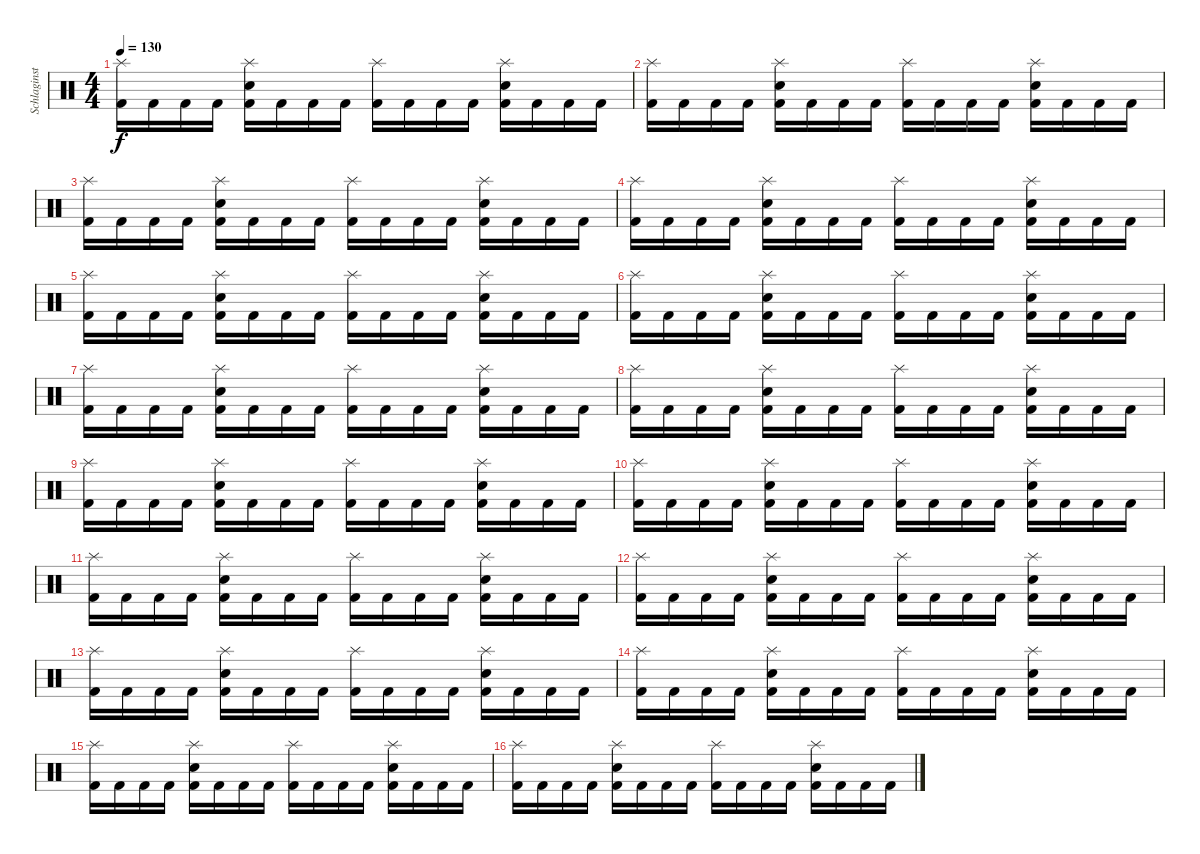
\track ("Schlaginstrumente - Auswahl" "Schlaginst") {instrument percussion}
\staff {score}
\articulation defaults
\ts (4 4)
\tempo 130
\clef neutral
\ks c
("Splash (hit)" "Kick (hit) 2").16{dy f} "Kick (hit) 2".16 "Kick (hit) 2".16 "Kick (hit) 2".16 ("Splash (hit)" "Snare (hit) 2" "Kick (hit) 2").16 "Kick (hit) 2".16 "Kick (hit) 2".16 "Kick (hit) 2".16 ("Splash (hit)" "Kick (hit) 2").16 "Kick (hit) 2".16 "Kick (hit) 2".16 "Kick (hit) 2".16 ("Splash (hit)" "Snare (hit) 2" "Kick (hit) 2").16 "Kick (hit) 2".16 "Kick (hit) 2".16 "Kick (hit) 2".16 |
("Splash (hit)" "Kick (hit) 2").16 "Kick (hit) 2".16 "Kick (hit) 2".16 "Kick (hit) 2".16 ("Splash (hit)" "Snare (hit) 2" "Kick (hit) 2").16 "Kick (hit) 2".16 "Kick (hit) 2".16 "Kick (hit) 2".16 ("Splash (hit)" "Kick (hit) 2").16 "Kick (hit) 2".16 "Kick (hit) 2".16 "Kick (hit) 2".16 ("Splash (hit)" "Snare (hit) 2" "Kick (hit) 2").16 "Kick (hit) 2".16 "Kick (hit) 2".16 "Kick (hit) 2".16 |
("Splash (hit)" "Kick (hit) 2").16 "Kick (hit) 2".16 "Kick (hit) 2".16 "Kick (hit) 2".16 ("Splash (hit)" "Snare (hit) 2" "Kick (hit) 2").16 "Kick (hit) 2".16 "Kick (hit) 2".16 "Kick (hit) 2".16 ("Splash (hit)" "Kick (hit) 2").16 "Kick (hit) 2".16 "Kick (hit) 2".16 "Kick (hit) 2".16 ("Splash (hit)" "Snare (hit) 2" "Kick (hit) 2").16 "Kick (hit) 2".16 "Kick (hit) 2".16 "Kick (hit) 2".16 |
("Splash (hit)" "Kick (hit) 2").16 "Kick (hit) 2".16 "Kick (hit) 2".16 "Kick (hit) 2".16 ("Splash (hit)" "Snare (hit) 2" "Kick (hit) 2").16 "Kick (hit) 2".16 "Kick (hit) 2".16 "Kick (hit) 2".16 ("Splash (hit)" "Kick (hit) 2").16 "Kick (hit) 2".16 "Kick (hit) 2".16 "Kick (hit) 2".16 ("Splash (hit)" "Snare (hit) 2" "Kick (hit) 2").16 "Kick (hit) 2".16 "Kick (hit) 2".16 "Kick (hit) 2".16 |
("Splash (hit)" "Kick (hit) 2").16 "Kick (hit) 2".16 "Kick (hit) 2".16 "Kick (hit) 2".16 ("Splash (hit)" "Snare (hit) 2" "Kick (hit) 2").16 "Kick (hit) 2".16 "Kick (hit) 2".16 "Kick (hit) 2".16 ("Splash (hit)" "Kick (hit) 2").16 "Kick (hit) 2".16 "Kick (hit) 2".16 "Kick (hit) 2".16 ("Splash (hit)" "Snare (hit) 2" "Kick (hit) 2").16 "Kick (hit) 2".16 "Kick (hit) 2".16 "Kick (hit) 2".16 |
("Splash (hit)" "Kick (hit) 2").16 "Kick (hit) 2".16 "Kick (hit) 2".16 "Kick (hit) 2".16 ("Splash (hit)" "Snare (hit) 2" "Kick (hit) 2").16 "Kick (hit) 2".16 "Kick (hit) 2".16 "Kick (hit) 2".16 ("Splash (hit)" "Kick (hit) 2").16 "Kick (hit) 2".16 "Kick (hit) 2".16 "Kick (hit) 2".16 ("Splash (hit)" "Snare (hit) 2" "Kick (hit) 2").16 "Kick (hit) 2".16 "Kick (hit) 2".16 "Kick (hit) 2".16 |
("Splash (hit)" "Kick (hit) 2").16 "Kick (hit) 2".16 "Kick (hit) 2".16 "Kick (hit) 2".16 ("Splash (hit)" "Snare (hit) 2" "Kick (hit) 2").16 "Kick (hit) 2".16 "Kick (hit) 2".16 "Kick (hit) 2".16 ("Splash (hit)" "Kick (hit) 2").16 "Kick (hit) 2".16 "Kick (hit) 2".16 "Kick (hit) 2".16 ("Splash (hit)" "Snare (hit) 2" "Kick (hit) 2").16 "Kick (hit) 2".16 "Kick (hit) 2".16 "Kick (hit) 2".16 |
("Splash (hit)" "Kick (hit) 2").16 "Kick (hit) 2".16 "Kick (hit) 2".16 "Kick (hit) 2".16 ("Splash (hit)" "Snare (hit) 2" "Kick (hit) 2").16 "Kick (hit) 2".16 "Kick (hit) 2".16 "Kick (hit) 2".16 ("Splash (hit)" "Kick (hit) 2").16 "Kick (hit) 2".16 "Kick (hit) 2".16 "Kick (hit) 2".16 ("Splash (hit)" "Snare (hit) 2" "Kick (hit) 2").16 "Kick (hit) 2".16 "Kick (hit) 2".16 "Kick (hit) 2".16 |
("Splash (hit)" "Kick (hit) 2").16 "Kick (hit) 2".16 "Kick (hit) 2".16 "Kick (hit) 2".16 ("Splash (hit)" "Snare (hit) 2" "Kick (hit) 2").16 "Kick (hit) 2".16 "Kick (hit) 2".16 "Kick (hit) 2".16 ("Splash (hit)" "Kick (hit) 2").16 "Kick (hit) 2".16 "Kick (hit) 2".16 "Kick (hit) 2".16 ("Splash (hit)" "Snare (hit) 2" "Kick (hit) 2").16 "Kick (hit) 2".16 "Kick (hit) 2".16 "Kick (hit) 2".16 |
("Splash (hit)" "Kick (hit) 2").16 "Kick (hit) 2".16 "Kick (hit) 2".16 "Kick (hit) 2".16 ("Splash (hit)" "Snare (hit) 2" "Kick (hit) 2").16 "Kick (hit) 2".16 "Kick (hit) 2".16 "Kick (hit) 2".16 ("Splash (hit)" "Kick (hit) 2").16 "Kick (hit) 2".16 "Kick (hit) 2".16 "Kick (hit) 2".16 ("Splash (hit)" "Snare (hit) 2" "Kick (hit) 2").16 "Kick (hit) 2".16 "Kick (hit) 2".16 "Kick (hit) 2".16 |
("Splash (hit)" "Kick (hit) 2").16 "Kick (hit) 2".16 "Kick (hit) 2".16 "Kick (hit) 2".16 ("Splash (hit)" "Snare (hit) 2" "Kick (hit) 2").16 "Kick (hit) 2".16 "Kick (hit) 2".16 "Kick (hit) 2".16 ("Splash (hit)" "Kick (hit) 2").16 "Kick (hit) 2".16 "Kick (hit) 2".16 "Kick (hit) 2".16 ("Splash (hit)" "Snare (hit) 2" "Kick (hit) 2").16 "Kick (hit) 2".16 "Kick (hit) 2".16 "Kick (hit) 2".16 |
("Splash (hit)" "Kick (hit) 2").16 "Kick (hit) 2".16 "Kick (hit) 2".16 "Kick (hit) 2".16 ("Splash (hit)" "Snare (hit) 2" "Kick (hit) 2").16 "Kick (hit) 2".16 "Kick (hit) 2".16 "Kick (hit) 2".16 ("Splash (hit)" "Kick (hit) 2").16 "Kick (hit) 2".16 "Kick (hit) 2".16 "Kick (hit) 2".16 ("Splash (hit)" "Snare (hit) 2" "Kick (hit) 2").16 "Kick (hit) 2".16 "Kick (hit) 2".16 "Kick (hit) 2".16 |
("Splash (hit)" "Kick (hit) 2").16 "Kick (hit) 2".16 "Kick (hit) 2".16 "Kick (hit) 2".16 ("Splash (hit)" "Snare (hit) 2" "Kick (hit) 2").16 "Kick (hit) 2".16 "Kick (hit) 2".16 "Kick (hit) 2".16 ("Splash (hit)" "Kick (hit) 2").16 "Kick (hit) 2".16 "Kick (hit) 2".16 "Kick (hit) 2".16 ("Splash (hit)" "Snare (hit) 2" "Kick (hit) 2").16 "Kick (hit) 2".16 "Kick (hit) 2".16 "Kick (hit) 2".16 |
("Splash (hit)" "Kick (hit) 2").16 "Kick (hit) 2".16 "Kick (hit) 2".16 "Kick (hit) 2".16 ("Splash (hit)" "Snare (hit) 2" "Kick (hit) 2").16 "Kick (hit) 2".16 "Kick (hit) 2".16 "Kick (hit) 2".16 ("Splash (hit)" "Kick (hit) 2").16 "Kick (hit) 2".16 "Kick (hit) 2".16 "Kick (hit) 2".16 ("Splash (hit)" "Snare (hit) 2" "Kick (hit) 2").16 "Kick (hit) 2".16 "Kick (hit) 2".16 "Kick (hit) 2".16 |
("Splash (hit)" "Kick (hit) 2").16 "Kick (hit) 2".16 "Kick (hit) 2".16 "Kick (hit) 2".16 ("Splash (hit)" "Snare (hit) 2" "Kick (hit) 2").16 "Kick (hit) 2".16 "Kick (hit) 2".16 "Kick (hit) 2".16 ("Splash (hit)" "Kick (hit) 2").16 "Kick (hit) 2".16 "Kick (hit) 2".16 "Kick (hit) 2".16 ("Splash (hit)" "Snare (hit) 2" "Kick (hit) 2").16 "Kick (hit) 2".16 "Kick (hit) 2".16 "Kick (hit) 2".16 |
("Splash (hit)" "Kick (hit) 2").16 "Kick (hit) 2".16 "Kick (hit) 2".16 "Kick (hit) 2".16 ("Splash (hit)" "Snare (hit) 2" "Kick (hit) 2").16 "Kick (hit) 2".16 "Kick (hit) 2".16 "Kick (hit) 2".16 ("Splash (hit)" "Kick (hit) 2").16 "Kick (hit) 2".16 "Kick (hit) 2".16 "Kick (hit) 2".16 ("Splash (hit)" "Snare (hit) 2" "Kick (hit) 2").16 "Kick (hit) 2".16 "Kick (hit) 2".16 "Kick (hit) 2".16
